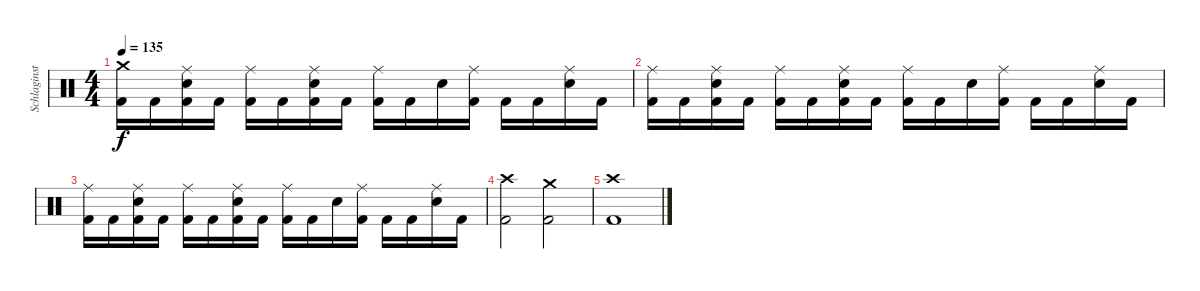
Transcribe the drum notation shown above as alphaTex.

\track ("Schlaginstrumente - Auswahl" "Schlaginst") {instrument percussion}
\staff {score}
\articulation defaults
\ts (4 4)
\tempo 135
\clef neutral
\ks c
("Crash medium (hit)" "Kick (hit) 2").16{dy f} "Kick (hit) 2".16 ("Ride (middle)" "Snare (hit) 2" "Kick (hit) 2").16 "Kick (hit) 2".16 ("Ride (middle)" "Kick (hit) 2").16 "Kick (hit) 2".16 ("Ride (middle)" "Snare (hit) 2" "Kick (hit) 2").16 "Kick (hit) 2".16 ("Ride (middle)" "Kick (hit) 2").16 "Kick (hit) 2".16 "Snare (hit) 2".16 ("Ride (middle)" "Kick (hit) 2").16 "Kick (hit) 2".16 "Kick (hit) 2".16 ("Ride (middle)" "Snare (hit) 2").16 "Kick (hit) 2".16 |
("Ride (middle)" "Kick (hit) 2").16 "Kick (hit) 2".16 ("Ride (middle)" "Snare (hit) 2" "Kick (hit) 2").16 "Kick (hit) 2".16 ("Ride (middle)" "Kick (hit) 2").16 "Kick (hit) 2".16 ("Ride (middle)" "Snare (hit) 2" "Kick (hit) 2").16 "Kick (hit) 2".16 ("Ride (middle)" "Kick (hit) 2").16 "Kick (hit) 2".16 "Snare (hit) 2".16 ("Ride (middle)" "Kick (hit) 2").16 "Kick (hit) 2".16 "Kick (hit) 2".16 ("Ride (middle)" "Snare (hit) 2").16 "Kick (hit) 2".16 |
("Ride (middle)" "Kick (hit) 2").16 "Kick (hit) 2".16 ("Ride (middle)" "Snare (hit) 2" "Kick (hit) 2").16 "Kick (hit) 2".16 ("Ride (middle)" "Kick (hit) 2").16 "Kick (hit) 2".16 ("Ride (middle)" "Snare (hit) 2" "Kick (hit) 2").16 "Kick (hit) 2".16 ("Ride (middle)" "Kick (hit) 2").16 "Kick (hit) 2".16 "Snare (hit) 2".16 ("Ride (middle)" "Kick (hit) 2").16 "Kick (hit) 2".16 "Kick (hit) 2".16 ("Ride (middle)" "Snare (hit) 2").16 "Kick (hit) 2".16 |
("Crash high (hit)" "Kick (hit) 2").2 ("Crash medium (hit)" "Kick (hit) 2").2 |
("Crash high (hit)" "Kick (hit) 2").1
